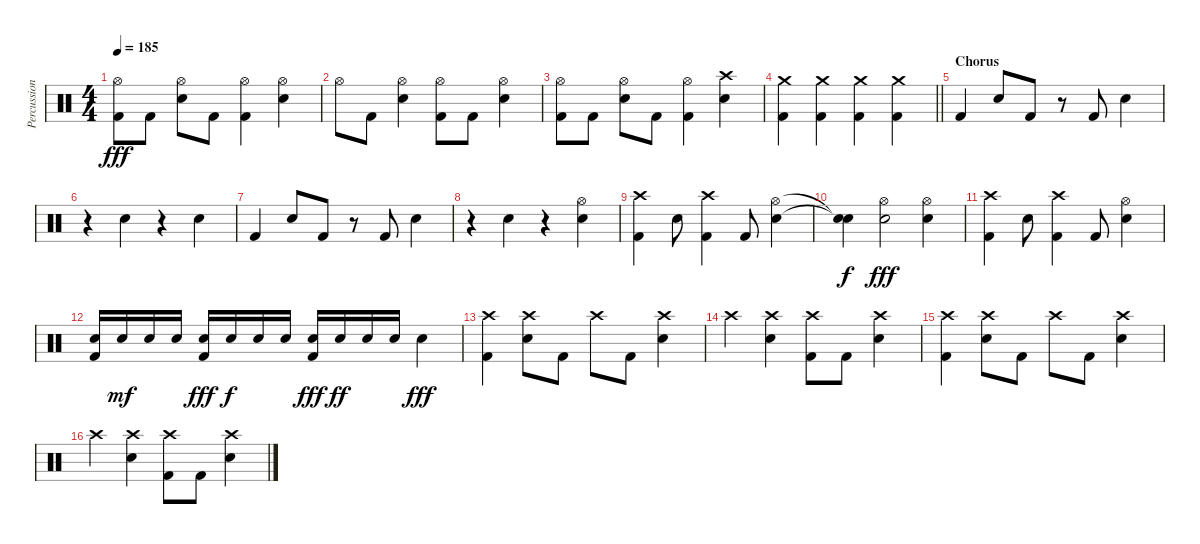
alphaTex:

\track ("Percussion" "Percussion") {instrument percussion}
\staff {score}
\articulation defaults
\ts (4 4)
\tempo 185
\clef neutral
\ks c
("Hi-Hat (open)" "Kick (hit) 2").8{dy fff} "Kick (hit) 2".8 ("Hi-Hat (open)" "Snare (hit) 2").8 "Kick (hit) 2".8 ("Hi-Hat (open)" "Kick (hit) 2").4 ("Hi-Hat (open)" "Snare (hit) 2").4 |
"Hi-Hat (open)".8 "Kick (hit) 2".8 ("Hi-Hat (open)" "Snare (hit) 2").4 ("Hi-Hat (open)" "Kick (hit) 2").8 "Kick (hit) 2".8 ("Hi-Hat (open)" "Snare (hit) 2").4 |
("Hi-Hat (open)" "Kick (hit) 2").8 "Kick (hit) 2".8 ("Hi-Hat (open)" "Snare (hit) 2").8 "Kick (hit) 2".8 ("Hi-Hat (open)" "Kick (hit) 2").4 ("Crash high (hit)" "Snare (hit) 2").4 |
\barLineRight lightlight
("Crash medium (hit)" "Kick (hit) 2").4 ("Crash medium (hit)" "Kick (hit) 2").4 ("Crash medium (hit)" "Kick (hit) 2").4 ("Crash medium (hit)" "Kick (hit) 2").4 |
\section ("" "Chorus")
"Kick (hit) 2".4 "Snare (hit) 2".8 "Kick (hit) 2".8 r.8 "Kick (hit) 2".8 "Snare (hit) 2".4 |
r.4 "Snare (hit) 2".4 r.4 "Snare (hit) 2".4 |
"Kick (hit) 2".4 "Snare (hit) 2".8 "Kick (hit) 2".8 r.8 "Kick (hit) 2".8 "Snare (hit) 2".4 |
r.4 "Snare (hit) 2".4 r.4 ("Hi-Hat (open)" "Snare (hit) 2").4 |
("Crash high (hit)" "Kick (hit) 2").4 "Snare (hit) 2".8 ("Crash high (hit)" "Kick (hit) 2").4 "Kick (hit) 2".8 ("Hi-Hat (open)" "Snare (hit) 2").4 |
("Snare (hit)"{t} "Snare (hit)"{t}).4{dy f} ("Hi-Hat (open)" "Snare (hit) 2").2{dy fff} ("Hi-Hat (open)" "Snare (hit) 2").4 |
("Crash high (hit)" "Kick (hit) 2").4 "Snare (hit) 2".8 ("Crash high (hit)" "Kick (hit) 2").4 "Kick (hit) 2".8 ("Hi-Hat (open)" "Snare (hit) 2").4 |
("Snare (hit) 2" "Kick (hit) 2").16 "Snare (hit) 2".16{dy mf} "Snare (hit) 2".16 "Snare (hit) 2".16 ("Snare (hit) 2" "Kick (hit) 2").16{dy fff} "Snare (hit) 2".16{dy f} "Snare (hit) 2".16 "Snare (hit) 2".16 ("Snare (hit) 2" "Kick (hit) 2").16{dy fff} "Snare (hit) 2".16{dy ff} "Snare (hit) 2".16 "Snare (hit) 2".16 "Snare (hit) 2".4{dy fff} |
("Crash high (hit)" "Kick (hit) 2").4 ("Crash high (hit)" "Snare (hit) 2").8 "Kick (hit) 2".8 "Crash high (hit)".8 "Kick (hit) 2".8 ("Crash high (hit)" "Snare (hit) 2").4 |
"Crash high (hit)".4 ("Crash high (hit)" "Snare (hit) 2").4 ("Crash high (hit)" "Kick (hit) 2").8 "Kick (hit) 2".8 ("Crash high (hit)" "Snare (hit) 2").4 |
("Crash high (hit)" "Kick (hit) 2").4 ("Crash high (hit)" "Snare (hit) 2").8 "Kick (hit) 2".8 "Crash high (hit)".8 "Kick (hit) 2".8 ("Crash high (hit)" "Snare (hit) 2").4 |
"Crash high (hit)".4 ("Crash high (hit)" "Snare (hit) 2").4 ("Crash high (hit)" "Kick (hit) 2").8 "Kick (hit) 2".8 ("Crash high (hit)" "Snare (hit) 2").4
